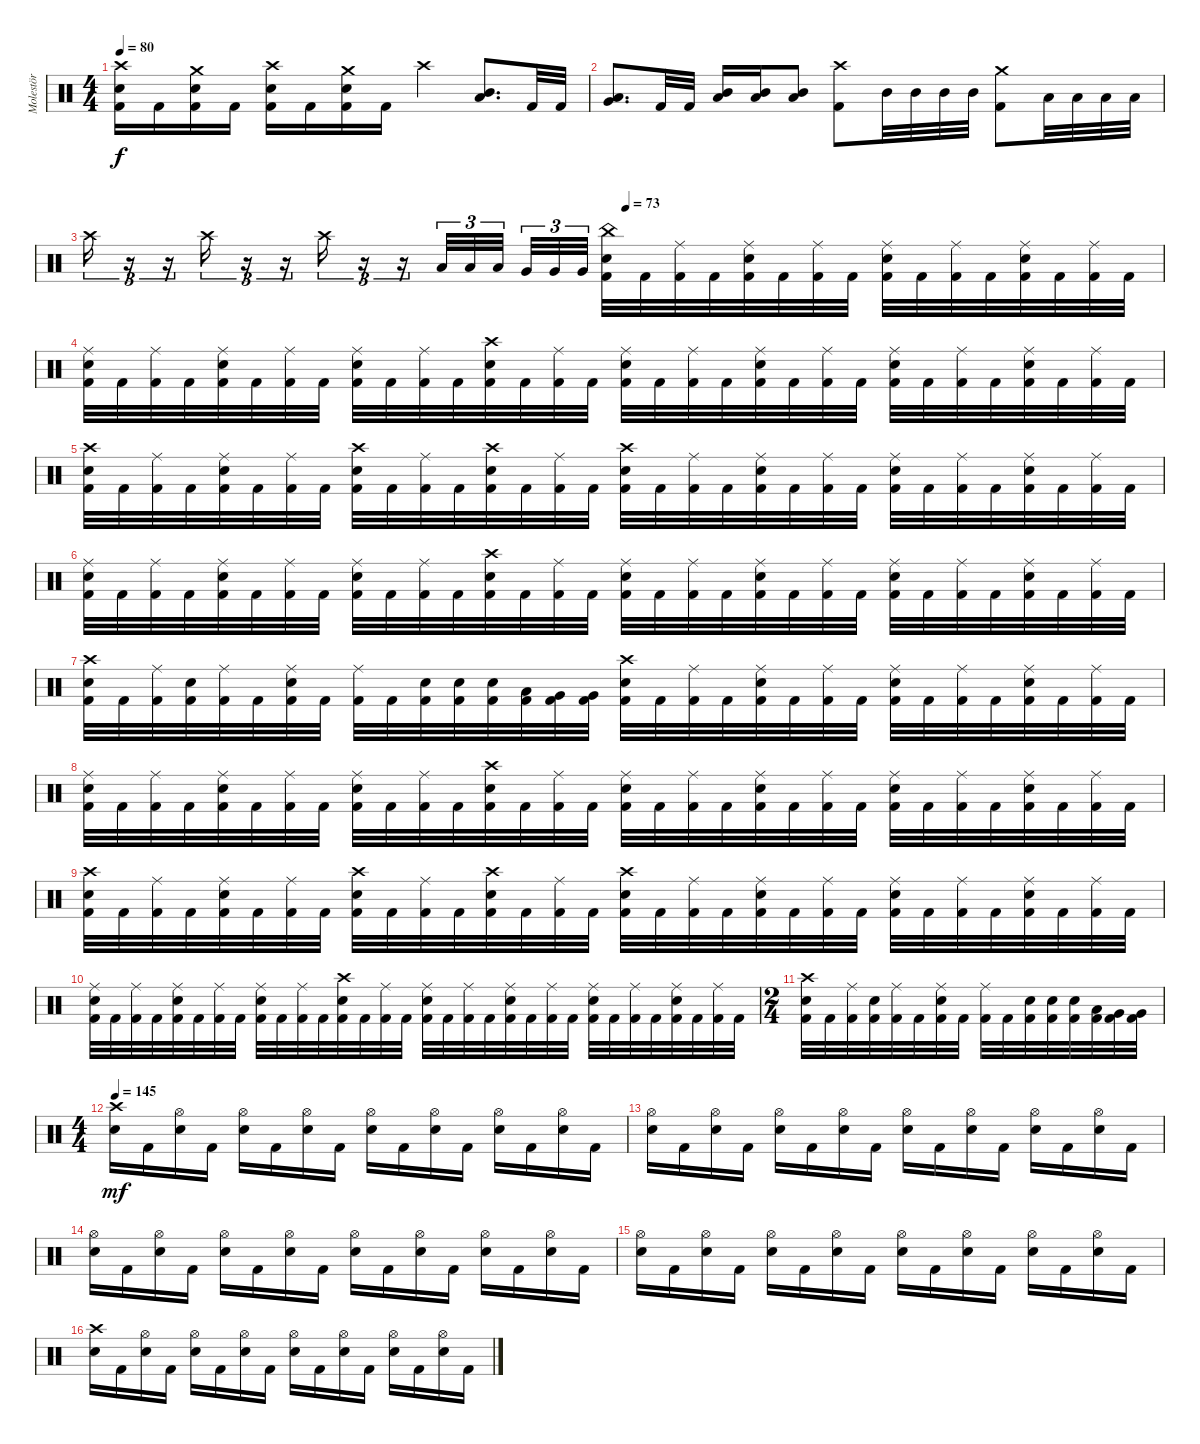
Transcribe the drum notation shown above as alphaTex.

\track ("Molestör" "Molestör") {instrument percussion}
\staff {score}
\articulation defaults
\ts (4 4)
\tempo 80
\clef neutral
\ks c
("Crash high (hit)" "Electric Snare (hit)" "Kick (hit) 2").16{dy f} "Kick (hit) 2".16 ("Crash medium (hit)" "Electric Snare (hit)" "Kick (hit) 2").16 "Kick (hit) 2".16 ("Crash high (hit)" "Electric Snare (hit)" "Kick (hit) 2").16 "Kick (hit) 2".16 ("Crash medium (hit)" "Electric Snare (hit)" "Kick (hit) 2").16 "Kick (hit) 2".16 "Crash high (hit)".4 ("Mid Tom (hit)" "Low Tom (hit)").8{d} "Kick (hit) 2".32 "Kick (hit) 2".32 |
("Low Tom (hit)" "Very Low Tom (hit)").8{d} "Kick (hit) 2".32 "Kick (hit) 2".32 ("Mid Tom (hit)" "Low Tom (hit)").16 ("Mid Tom (hit)" "Low Tom (hit)").16 ("Mid Tom (hit)" "Low Tom (hit)").8 ("Crash high (hit)" "Kick (hit) 2").8 "Mid Tom (hit)".32 "Mid Tom (hit)".32 "Mid Tom (hit)".32 "Mid Tom (hit)".32 ("Crash medium (hit)" "Kick (hit) 2").8 "Low Tom (hit)".32 "Low Tom (hit)".32 "Low Tom (hit)".32 "Low Tom (hit)".32 |
\tempo (73 0.5)
"Crash high (hit)".16{tu (3 2)} r.16{tu (3 2)} r.16{tu (3 2)} "Crash high (hit)".16{tu (3 2)} r.16{tu (3 2)} r.16{tu (3 2)} "Crash high (hit)".16{tu (3 2)} r.16{tu (3 2)} r.16{tu (3 2)} "Low Tom (hit)".32{tu (3 2)} "Low Tom (hit)".32{tu (3 2)} "Low Tom (hit)".32{tu (3 2) beam splitsecondary} "Very Low Tom (hit)".32{tu (3 2)} "Very Low Tom (hit)".32{tu (3 2)} "Very Low Tom (hit)".32{tu (3 2)} ("China (hit)" "Electric Snare (hit)" "Kick (hit) 2").32 "Kick (hit) 2".32 ("Ride (middle)" "Kick (hit) 2").32 "Kick (hit) 2".32 ("Ride (middle)" "Electric Snare (hit)" "Kick (hit) 2").32 "Kick (hit) 2".32 ("Ride (middle)" "Kick (hit) 2").32 "Kick (hit) 2".32 ("Ride (middle)" "Electric Snare (hit)" "Kick (hit) 2").32 "Kick (hit) 2".32 ("Ride (middle)" "Kick (hit) 2").32 "Kick (hit) 2".32 ("Ride (middle)" "Electric Snare (hit)" "Kick (hit) 2").32 "Kick (hit) 2".32 ("Ride (middle)" "Kick (hit) 2").32 "Kick (hit) 2".32 |
("Ride (middle)" "Electric Snare (hit)" "Kick (hit) 2").32 "Kick (hit) 2".32 ("Ride (middle)" "Kick (hit) 2").32 "Kick (hit) 2".32 ("Ride (middle)" "Electric Snare (hit)" "Kick (hit) 2").32 "Kick (hit) 2".32 ("Ride (middle)" "Kick (hit) 2").32 "Kick (hit) 2".32 ("Ride (middle)" "Electric Snare (hit)" "Kick (hit) 2").32 "Kick (hit) 2".32 ("Ride (middle)" "Kick (hit) 2").32 "Kick (hit) 2".32 ("Crash high (hit)" "Electric Snare (hit)" "Kick (hit) 2").32 "Kick (hit) 2".32 ("Ride (middle)" "Kick (hit) 2").32 "Kick (hit) 2".32 ("Ride (middle)" "Electric Snare (hit)" "Kick (hit) 2").32 "Kick (hit) 2".32 ("Ride (middle)" "Kick (hit) 2").32 "Kick (hit) 2".32 ("Ride (middle)" "Electric Snare (hit)" "Kick (hit) 2").32 "Kick (hit) 2".32 ("Ride (middle)" "Kick (hit) 2").32 "Kick (hit) 2".32 ("Ride (middle)" "Electric Snare (hit)" "Kick (hit) 2").32 "Kick (hit) 2".32 ("Ride (middle)" "Kick (hit) 2").32 "Kick (hit) 2".32 ("Ride (middle)" "Electric Snare (hit)" "Kick (hit) 2").32 "Kick (hit) 2".32 ("Ride (middle)" "Kick (hit) 2").32 "Kick (hit) 2".32 |
("Crash high (hit)" "Electric Snare (hit)" "Kick (hit) 2").32 "Kick (hit) 2".32 ("Ride (middle)" "Kick (hit) 2").32 "Kick (hit) 2".32 ("Ride (middle)" "Electric Snare (hit)" "Kick (hit) 2").32 "Kick (hit) 2".32 ("Ride (middle)" "Kick (hit) 2").32 "Kick (hit) 2".32 ("Crash high (hit)" "Electric Snare (hit)" "Kick (hit) 2").32 "Kick (hit) 2".32 ("Ride (middle)" "Kick (hit) 2").32 "Kick (hit) 2".32 ("Crash high (hit)" "Electric Snare (hit)" "Kick (hit) 2").32 "Kick (hit) 2".32 ("Ride (middle)" "Kick (hit) 2").32 "Kick (hit) 2".32 ("Crash high (hit)" "Electric Snare (hit)" "Kick (hit) 2").32 "Kick (hit) 2".32 ("Ride (middle)" "Kick (hit) 2").32 "Kick (hit) 2".32 ("Ride (middle)" "Electric Snare (hit)" "Kick (hit) 2").32 "Kick (hit) 2".32 ("Ride (middle)" "Kick (hit) 2").32 "Kick (hit) 2".32 ("Ride (middle)" "Electric Snare (hit)" "Kick (hit) 2").32 "Kick (hit) 2".32 ("Ride (middle)" "Kick (hit) 2").32 "Kick (hit) 2".32 ("Ride (middle)" "Electric Snare (hit)" "Kick (hit) 2").32 "Kick (hit) 2".32 ("Ride (middle)" "Kick (hit) 2").32 "Kick (hit) 2".32 |
("Ride (middle)" "Electric Snare (hit)" "Kick (hit) 2").32 "Kick (hit) 2".32 ("Ride (middle)" "Kick (hit) 2").32 "Kick (hit) 2".32 ("Ride (middle)" "Electric Snare (hit)" "Kick (hit) 2").32 "Kick (hit) 2".32 ("Ride (middle)" "Kick (hit) 2").32 "Kick (hit) 2".32 ("Ride (middle)" "Electric Snare (hit)" "Kick (hit) 2").32 "Kick (hit) 2".32 ("Ride (middle)" "Kick (hit) 2").32 "Kick (hit) 2".32 ("Crash high (hit)" "Electric Snare (hit)" "Kick (hit) 2").32 "Kick (hit) 2".32 ("Ride (middle)" "Kick (hit) 2").32 "Kick (hit) 2".32 ("Ride (middle)" "Electric Snare (hit)" "Kick (hit) 2").32 "Kick (hit) 2".32 ("Ride (middle)" "Kick (hit) 2").32 "Kick (hit) 2".32 ("Ride (middle)" "Electric Snare (hit)" "Kick (hit) 2").32 "Kick (hit) 2".32 ("Ride (middle)" "Kick (hit) 2").32 "Kick (hit) 2".32 ("Ride (middle)" "Electric Snare (hit)" "Kick (hit) 2").32 "Kick (hit) 2".32 ("Ride (middle)" "Kick (hit) 2").32 "Kick (hit) 2".32 ("Ride (middle)" "Electric Snare (hit)" "Kick (hit) 2").32 "Kick (hit) 2".32 ("Ride (middle)" "Kick (hit) 2").32 "Kick (hit) 2".32 |
("Crash high (hit)" "Electric Snare (hit)" "Kick (hit) 2").32 "Kick (hit) 2".32 ("Ride (middle)" "Kick (hit) 2").32 ("Electric Snare (hit)" "Kick (hit) 2").32 ("Ride (middle)" "Kick (hit) 2").32 "Kick (hit) 2".32 ("Ride (middle)" "Electric Snare (hit)" "Kick (hit) 2").32 "Kick (hit) 2".32 ("Ride (middle)" "Kick (hit) 2").32 "Kick (hit) 2".32 ("Electric Snare (hit)" "Kick (hit) 2").32 ("Electric Snare (hit)" "Kick (hit) 2").32 ("Electric Snare (hit)" "Kick (hit) 2").32 ("Low Tom (hit)" "Kick (hit) 2").32 ("Very Low Tom (hit)" "Kick (hit) 2").32 ("Very Low Tom (hit)" "Kick (hit) 2").32 ("Crash high (hit)" "Electric Snare (hit)" "Kick (hit) 2").32 "Kick (hit) 2".32 ("Ride (middle)" "Kick (hit) 2").32 "Kick (hit) 2".32 ("Ride (middle)" "Electric Snare (hit)" "Kick (hit) 2").32 "Kick (hit) 2".32 ("Ride (middle)" "Kick (hit) 2").32 "Kick (hit) 2".32 ("Ride (middle)" "Electric Snare (hit)" "Kick (hit) 2").32 "Kick (hit) 2".32 ("Ride (middle)" "Kick (hit) 2").32 "Kick (hit) 2".32 ("Ride (middle)" "Electric Snare (hit)" "Kick (hit) 2").32 "Kick (hit) 2".32 ("Ride (middle)" "Kick (hit) 2").32 "Kick (hit) 2".32 |
("Ride (middle)" "Electric Snare (hit)" "Kick (hit) 2").32 "Kick (hit) 2".32 ("Ride (middle)" "Kick (hit) 2").32 "Kick (hit) 2".32 ("Ride (middle)" "Electric Snare (hit)" "Kick (hit) 2").32 "Kick (hit) 2".32 ("Ride (middle)" "Kick (hit) 2").32 "Kick (hit) 2".32 ("Ride (middle)" "Electric Snare (hit)" "Kick (hit) 2").32 "Kick (hit) 2".32 ("Ride (middle)" "Kick (hit) 2").32 "Kick (hit) 2".32 ("Crash high (hit)" "Electric Snare (hit)" "Kick (hit) 2").32 "Kick (hit) 2".32 ("Ride (middle)" "Kick (hit) 2").32 "Kick (hit) 2".32 ("Ride (middle)" "Electric Snare (hit)" "Kick (hit) 2").32 "Kick (hit) 2".32 ("Ride (middle)" "Kick (hit) 2").32 "Kick (hit) 2".32 ("Ride (middle)" "Electric Snare (hit)" "Kick (hit) 2").32 "Kick (hit) 2".32 ("Ride (middle)" "Kick (hit) 2").32 "Kick (hit) 2".32 ("Ride (middle)" "Electric Snare (hit)" "Kick (hit) 2").32 "Kick (hit) 2".32 ("Ride (middle)" "Kick (hit) 2").32 "Kick (hit) 2".32 ("Ride (middle)" "Electric Snare (hit)" "Kick (hit) 2").32 "Kick (hit) 2".32 ("Ride (middle)" "Kick (hit) 2").32 "Kick (hit) 2".32 |
("Crash high (hit)" "Electric Snare (hit)" "Kick (hit) 2").32 "Kick (hit) 2".32 ("Ride (middle)" "Kick (hit) 2").32 "Kick (hit) 2".32 ("Ride (middle)" "Electric Snare (hit)" "Kick (hit) 2").32 "Kick (hit) 2".32 ("Ride (middle)" "Kick (hit) 2").32 "Kick (hit) 2".32 ("Crash high (hit)" "Electric Snare (hit)" "Kick (hit) 2").32 "Kick (hit) 2".32 ("Ride (middle)" "Kick (hit) 2").32 "Kick (hit) 2".32 ("Crash high (hit)" "Electric Snare (hit)" "Kick (hit) 2").32 "Kick (hit) 2".32 ("Ride (middle)" "Kick (hit) 2").32 "Kick (hit) 2".32 ("Crash high (hit)" "Electric Snare (hit)" "Kick (hit) 2").32 "Kick (hit) 2".32 ("Ride (middle)" "Kick (hit) 2").32 "Kick (hit) 2".32 ("Ride (middle)" "Electric Snare (hit)" "Kick (hit) 2").32 "Kick (hit) 2".32 ("Ride (middle)" "Kick (hit) 2").32 "Kick (hit) 2".32 ("Ride (middle)" "Electric Snare (hit)" "Kick (hit) 2").32 "Kick (hit) 2".32 ("Ride (middle)" "Kick (hit) 2").32 "Kick (hit) 2".32 ("Ride (middle)" "Electric Snare (hit)" "Kick (hit) 2").32 "Kick (hit) 2".32 ("Ride (middle)" "Kick (hit) 2").32 "Kick (hit) 2".32 |
("Ride (middle)" "Electric Snare (hit)" "Kick (hit) 2").32 "Kick (hit) 2".32 ("Ride (middle)" "Kick (hit) 2").32 "Kick (hit) 2".32 ("Ride (middle)" "Electric Snare (hit)" "Kick (hit) 2").32 "Kick (hit) 2".32 ("Ride (middle)" "Kick (hit) 2").32 "Kick (hit) 2".32 ("Ride (middle)" "Electric Snare (hit)" "Kick (hit) 2").32 "Kick (hit) 2".32 ("Ride (middle)" "Kick (hit) 2").32 "Kick (hit) 2".32 ("Crash high (hit)" "Electric Snare (hit)" "Kick (hit) 2").32 "Kick (hit) 2".32 ("Ride (middle)" "Kick (hit) 2").32 "Kick (hit) 2".32 ("Ride (middle)" "Electric Snare (hit)" "Kick (hit) 2").32 "Kick (hit) 2".32 ("Ride (middle)" "Kick (hit) 2").32 "Kick (hit) 2".32 ("Ride (middle)" "Electric Snare (hit)" "Kick (hit) 2").32 "Kick (hit) 2".32 ("Ride (middle)" "Kick (hit) 2").32 "Kick (hit) 2".32 ("Ride (middle)" "Electric Snare (hit)" "Kick (hit) 2").32 "Kick (hit) 2".32 ("Ride (middle)" "Kick (hit) 2").32 "Kick (hit) 2".32 ("Ride (middle)" "Electric Snare (hit)" "Kick (hit) 2").32 "Kick (hit) 2".32 ("Ride (middle)" "Kick (hit) 2").32 "Kick (hit) 2".32 |
\ts (2 4)
("Crash high (hit)" "Electric Snare (hit)" "Kick (hit) 2").32 "Kick (hit) 2".32 ("Ride (middle)" "Kick (hit) 2").32 ("Electric Snare (hit)" "Kick (hit) 2").32 ("Ride (middle)" "Kick (hit) 2").32 "Kick (hit) 2".32 ("Ride (middle)" "Electric Snare (hit)" "Kick (hit) 2").32 "Kick (hit) 2".32 ("Ride (middle)" "Kick (hit) 2").32 "Kick (hit) 2".32 ("Electric Snare (hit)" "Kick (hit) 2").32 ("Electric Snare (hit)" "Kick (hit) 2").32 ("Electric Snare (hit)" "Kick (hit) 2").32 ("Low Tom (hit)" "Kick (hit) 2").32 ("Very Low Tom (hit)" "Kick (hit) 2").32 ("Very Low Tom (hit)" "Kick (hit) 2").32 |
\ts (4 4)
\tempo 145
("Crash high (hit)" "Electric Snare (hit)").16{dy mf} "Kick (hit) 2".16 ("Hi-Hat (open)" "Electric Snare (hit)").16 "Kick (hit) 2".16 ("Hi-Hat (open)" "Electric Snare (hit)").16 "Kick (hit) 2".16 ("Hi-Hat (open)" "Electric Snare (hit)").16 "Kick (hit) 2".16 ("Hi-Hat (open)" "Electric Snare (hit)").16 "Kick (hit) 2".16 ("Hi-Hat (open)" "Electric Snare (hit)").16 "Kick (hit) 2".16 ("Hi-Hat (open)" "Electric Snare (hit)").16 "Kick (hit) 2".16 ("Hi-Hat (open)" "Electric Snare (hit)").16 "Kick (hit) 2".16 |
("Hi-Hat (open)" "Electric Snare (hit)").16 "Kick (hit) 2".16 ("Hi-Hat (open)" "Electric Snare (hit)").16 "Kick (hit) 2".16 ("Hi-Hat (open)" "Electric Snare (hit)").16 "Kick (hit) 2".16 ("Hi-Hat (open)" "Electric Snare (hit)").16 "Kick (hit) 2".16 ("Hi-Hat (open)" "Electric Snare (hit)").16 "Kick (hit) 2".16 ("Hi-Hat (open)" "Electric Snare (hit)").16 "Kick (hit) 2".16 ("Hi-Hat (open)" "Electric Snare (hit)").16 "Kick (hit) 2".16 ("Hi-Hat (open)" "Electric Snare (hit)").16 "Kick (hit) 2".16 |
("Hi-Hat (open)" "Electric Snare (hit)").16 "Kick (hit) 2".16 ("Hi-Hat (open)" "Electric Snare (hit)").16 "Kick (hit) 2".16 ("Hi-Hat (open)" "Electric Snare (hit)").16 "Kick (hit) 2".16 ("Hi-Hat (open)" "Electric Snare (hit)").16 "Kick (hit) 2".16 ("Hi-Hat (open)" "Electric Snare (hit)").16 "Kick (hit) 2".16 ("Hi-Hat (open)" "Electric Snare (hit)").16 "Kick (hit) 2".16 ("Hi-Hat (open)" "Electric Snare (hit)").16 "Kick (hit) 2".16 ("Hi-Hat (open)" "Electric Snare (hit)").16 "Kick (hit) 2".16 |
("Hi-Hat (open)" "Electric Snare (hit)").16 "Kick (hit) 2".16 ("Hi-Hat (open)" "Electric Snare (hit)").16 "Kick (hit) 2".16 ("Hi-Hat (open)" "Electric Snare (hit)").16 "Kick (hit) 2".16 ("Hi-Hat (open)" "Electric Snare (hit)").16 "Kick (hit) 2".16 ("Hi-Hat (open)" "Electric Snare (hit)").16 "Kick (hit) 2".16 ("Hi-Hat (open)" "Electric Snare (hit)").16 "Kick (hit) 2".16 ("Hi-Hat (open)" "Electric Snare (hit)").16 "Kick (hit) 2".16 ("Hi-Hat (open)" "Electric Snare (hit)").16 "Kick (hit) 2".16 |
("Crash high (hit)" "Electric Snare (hit)").16 "Kick (hit) 2".16 ("Hi-Hat (open)" "Electric Snare (hit)").16 "Kick (hit) 2".16 ("Hi-Hat (open)" "Electric Snare (hit)").16 "Kick (hit) 2".16 ("Hi-Hat (open)" "Electric Snare (hit)").16 "Kick (hit) 2".16 ("Hi-Hat (open)" "Electric Snare (hit)").16 "Kick (hit) 2".16 ("Hi-Hat (open)" "Electric Snare (hit)").16 "Kick (hit) 2".16 ("Hi-Hat (open)" "Electric Snare (hit)").16 "Kick (hit) 2".16 ("Hi-Hat (open)" "Electric Snare (hit)").16 "Kick (hit) 2".16
